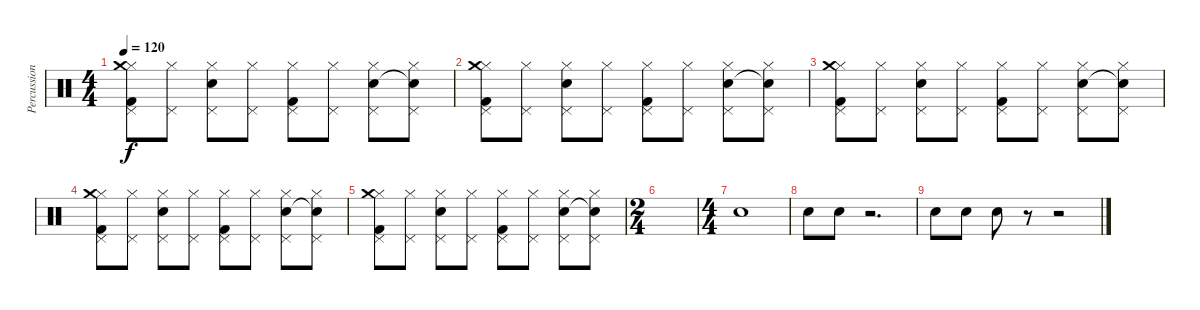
\track ("Percussions" "Percussion") {instrument percussion}
\staff {score}
\articulation defaults
\ts (4 4)
\tempo 120
\clef neutral
\ks c
("Hi-Hat (closed)" "Pedal Hi-Hat (hit)" "Crash medium (hit)" "Kick (hit) 2").8{dy f} ("Hi-Hat (closed)" "Pedal Hi-Hat (hit)").8 ("Hi-Hat (closed)" "Pedal Hi-Hat (hit)" "Electric Snare (hit)").8 ("Hi-Hat (closed)" "Pedal Hi-Hat (hit)").8 ("Hi-Hat (closed)" "Pedal Hi-Hat (hit)" "Kick (hit) 2").8 ("Hi-Hat (closed)" "Pedal Hi-Hat (hit)").8 ("Hi-Hat (closed)" "Pedal Hi-Hat (hit)" "Electric Snare (hit)").8 ("Hi-Hat (closed)" "Pedal Hi-Hat (hit)" "Snare (hit)"{t}).8 |
("Hi-Hat (closed)" "Pedal Hi-Hat (hit)" "Crash medium (hit)" "Kick (hit) 2").8 ("Hi-Hat (closed)" "Pedal Hi-Hat (hit)").8 ("Hi-Hat (closed)" "Pedal Hi-Hat (hit)" "Electric Snare (hit)").8 ("Hi-Hat (closed)" "Pedal Hi-Hat (hit)").8 ("Hi-Hat (closed)" "Pedal Hi-Hat (hit)" "Kick (hit) 2").8 ("Hi-Hat (closed)" "Pedal Hi-Hat (hit)").8 ("Hi-Hat (closed)" "Pedal Hi-Hat (hit)" "Electric Snare (hit)").8 ("Hi-Hat (closed)" "Pedal Hi-Hat (hit)" "Snare (hit)"{t}).8 |
("Hi-Hat (closed)" "Pedal Hi-Hat (hit)" "Crash medium (hit)" "Kick (hit) 2").8 ("Hi-Hat (closed)" "Pedal Hi-Hat (hit)").8 ("Hi-Hat (closed)" "Pedal Hi-Hat (hit)" "Electric Snare (hit)").8 ("Hi-Hat (closed)" "Pedal Hi-Hat (hit)").8 ("Hi-Hat (closed)" "Pedal Hi-Hat (hit)" "Kick (hit) 2").8 ("Hi-Hat (closed)" "Pedal Hi-Hat (hit)").8 ("Hi-Hat (closed)" "Pedal Hi-Hat (hit)" "Electric Snare (hit)").8 ("Hi-Hat (closed)" "Pedal Hi-Hat (hit)" "Snare (hit)"{t}).8 |
("Hi-Hat (closed)" "Pedal Hi-Hat (hit)" "Crash medium (hit)" "Kick (hit) 2").8 ("Hi-Hat (closed)" "Pedal Hi-Hat (hit)").8 ("Hi-Hat (closed)" "Pedal Hi-Hat (hit)" "Electric Snare (hit)").8 ("Hi-Hat (closed)" "Pedal Hi-Hat (hit)").8 ("Hi-Hat (closed)" "Pedal Hi-Hat (hit)" "Kick (hit) 2").8 ("Hi-Hat (closed)" "Pedal Hi-Hat (hit)").8 ("Hi-Hat (closed)" "Pedal Hi-Hat (hit)" "Electric Snare (hit)").8 ("Hi-Hat (closed)" "Pedal Hi-Hat (hit)" "Snare (hit)"{t}).8 |
("Hi-Hat (closed)" "Pedal Hi-Hat (hit)" "Crash medium (hit)" "Kick (hit) 2").8 ("Hi-Hat (closed)" "Pedal Hi-Hat (hit)").8 ("Hi-Hat (closed)" "Pedal Hi-Hat (hit)" "Electric Snare (hit)").8 ("Hi-Hat (closed)" "Pedal Hi-Hat (hit)").8 ("Hi-Hat (closed)" "Pedal Hi-Hat (hit)" "Kick (hit) 2").8 ("Hi-Hat (closed)" "Pedal Hi-Hat (hit)").8 ("Hi-Hat (closed)" "Pedal Hi-Hat (hit)" "Electric Snare (hit)").8 ("Hi-Hat (closed)" "Pedal Hi-Hat (hit)" "Snare (hit)"{t}).8 |
\ts (2 4)
|
\ts (4 4)
"Electric Snare (hit)".1 |
"Electric Snare (hit)".8 "Electric Snare (hit)".8 r.2{d} |
"Electric Snare (hit)".8 "Electric Snare (hit)".8 "Electric Snare (hit)".8 r.8 r.2
